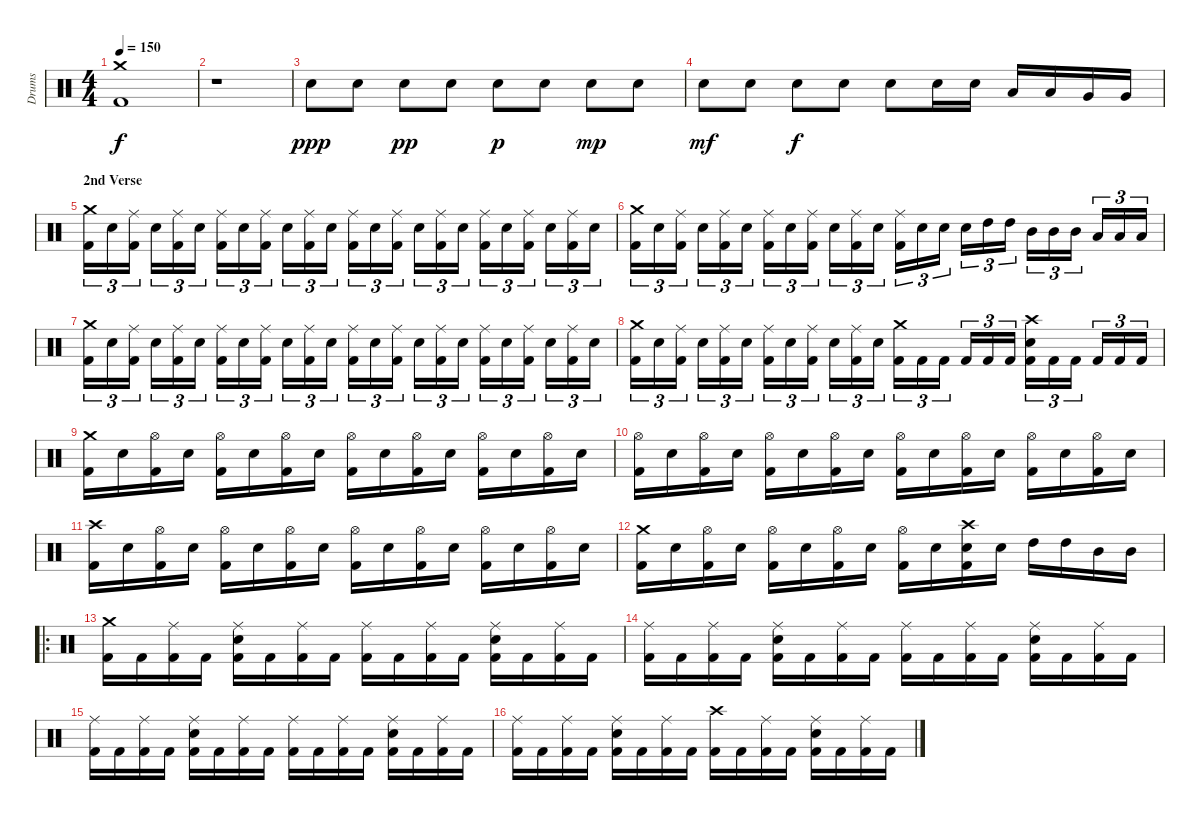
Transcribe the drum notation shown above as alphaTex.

\track ("Drums" "Drums") {instrument percussion}
\staff {score}
\articulation defaults
\ts (4 4)
\tempo 150
\clef neutral
\ks c
("Kick (hit) 2" "Crash medium (hit)").1{dy f} |
r.1 |
"Electric Snare (hit)".8{dy ppp} "Electric Snare (hit)".8 "Electric Snare (hit)".8{dy pp} "Electric Snare (hit)".8 "Electric Snare (hit)".8{dy p} "Electric Snare (hit)".8 "Electric Snare (hit)".8{dy mp} "Electric Snare (hit)".8 |
"Electric Snare (hit)".8{dy mf} "Electric Snare (hit)".8 "Electric Snare (hit)".8{dy f} "Electric Snare (hit)".8 "Electric Snare (hit)".8 "Electric Snare (hit)".16 "Electric Snare (hit)".16 "Low Tom (hit)".16 "Low Tom (hit)".16 "Very Low Tom (hit)".16 "Very Low Tom (hit)".16 |
\section ("" "2nd Verse")
("Kick (hit) 2" "Crash medium (hit)").16{tu (3 2)} "Electric Snare (hit)".16{tu (3 2)} ("Kick (hit) 2" "Ride (middle)").16{tu (3 2)} "Electric Snare (hit)".16{tu (3 2)} ("Kick (hit) 2" "Ride (middle)").16{tu (3 2)} "Electric Snare (hit)".16{tu (3 2)} ("Kick (hit) 2" "Ride (middle)").16{tu (3 2)} "Electric Snare (hit)".16{tu (3 2)} ("Kick (hit) 2" "Ride (middle)").16{tu (3 2)} "Electric Snare (hit)".16{tu (3 2)} ("Kick (hit) 2" "Ride (middle)").16{tu (3 2)} "Electric Snare (hit)".16{tu (3 2)} ("Kick (hit) 2" "Ride (middle)").16{tu (3 2)} "Electric Snare (hit)".16{tu (3 2)} ("Kick (hit) 2" "Ride (middle)").16{tu (3 2)} "Electric Snare (hit)".16{tu (3 2)} ("Kick (hit) 2" "Ride (middle)").16{tu (3 2)} "Electric Snare (hit)".16{tu (3 2)} ("Kick (hit) 2" "Ride (middle)").16{tu (3 2)} "Electric Snare (hit)".16{tu (3 2)} ("Kick (hit) 2" "Ride (middle)").16{tu (3 2)} "Electric Snare (hit)".16{tu (3 2)} ("Kick (hit) 2" "Ride (middle)").16{tu (3 2)} "Electric Snare (hit)".16{tu (3 2)} |
("Kick (hit) 2" "Crash medium (hit)").16{tu (3 2)} "Electric Snare (hit)".16{tu (3 2)} ("Kick (hit) 2" "Ride (middle)").16{tu (3 2)} "Electric Snare (hit)".16{tu (3 2)} ("Kick (hit) 2" "Ride (middle)").16{tu (3 2)} "Electric Snare (hit)".16{tu (3 2)} ("Kick (hit) 2" "Ride (middle)").16{tu (3 2)} "Electric Snare (hit)".16{tu (3 2)} ("Kick (hit) 2" "Ride (middle)").16{tu (3 2)} "Electric Snare (hit)".16{tu (3 2)} ("Kick (hit) 2" "Ride (middle)").16{tu (3 2)} "Electric Snare (hit)".16{tu (3 2)} ("Kick (hit) 2" "Ride (middle)").16{tu (3 2)} "Electric Snare (hit)".16{tu (3 2)} "Electric Snare (hit)".16{tu (3 2)} "Electric Snare (hit)".16{tu (3 2)} "High Tom (hit)".16{tu (3 2)} "High Tom (hit)".16{tu (3 2)} "Mid Tom (hit)".16{tu (3 2)} "Mid Tom (hit)".16{tu (3 2)} "Mid Tom (hit)".16{tu (3 2)} "Low Tom (hit)".16{tu (3 2)} "Low Tom (hit)".16{tu (3 2)} "Low Tom (hit)".16{tu (3 2)} |
("Kick (hit) 2" "Crash medium (hit)").16{tu (3 2)} "Electric Snare (hit)".16{tu (3 2)} ("Kick (hit) 2" "Ride (middle)").16{tu (3 2)} "Electric Snare (hit)".16{tu (3 2)} ("Kick (hit) 2" "Ride (middle)").16{tu (3 2)} "Electric Snare (hit)".16{tu (3 2)} ("Kick (hit) 2" "Ride (middle)").16{tu (3 2)} "Electric Snare (hit)".16{tu (3 2)} ("Kick (hit) 2" "Ride (middle)").16{tu (3 2)} "Electric Snare (hit)".16{tu (3 2)} ("Kick (hit) 2" "Ride (middle)").16{tu (3 2)} "Electric Snare (hit)".16{tu (3 2)} ("Kick (hit) 2" "Ride (middle)").16{tu (3 2)} "Electric Snare (hit)".16{tu (3 2)} ("Kick (hit) 2" "Ride (middle)").16{tu (3 2)} "Electric Snare (hit)".16{tu (3 2)} ("Kick (hit) 2" "Ride (middle)").16{tu (3 2)} "Electric Snare (hit)".16{tu (3 2)} ("Kick (hit) 2" "Ride (middle)").16{tu (3 2)} "Electric Snare (hit)".16{tu (3 2)} ("Kick (hit) 2" "Ride (middle)").16{tu (3 2)} "Electric Snare (hit)".16{tu (3 2)} ("Kick (hit) 2" "Ride (middle)").16{tu (3 2)} "Electric Snare (hit)".16{tu (3 2)} |
("Kick (hit) 2" "Crash medium (hit)").16{tu (3 2)} "Electric Snare (hit)".16{tu (3 2)} ("Kick (hit) 2" "Ride (middle)").16{tu (3 2)} "Electric Snare (hit)".16{tu (3 2)} ("Kick (hit) 2" "Ride (middle)").16{tu (3 2)} "Electric Snare (hit)".16{tu (3 2)} ("Kick (hit) 2" "Ride (middle)").16{tu (3 2)} "Electric Snare (hit)".16{tu (3 2)} ("Kick (hit) 2" "Ride (middle)").16{tu (3 2)} "Electric Snare (hit)".16{tu (3 2)} ("Kick (hit) 2" "Ride (middle)").16{tu (3 2)} "Electric Snare (hit)".16{tu (3 2)} ("Kick (hit) 2" "Crash medium (hit)").16{tu (3 2)} "Kick (hit) 2".16{tu (3 2)} "Kick (hit) 2".16{tu (3 2)} "Kick (hit) 2".16{tu (3 2)} "Kick (hit) 2".16{tu (3 2)} "Kick (hit) 2".16{tu (3 2)} ("Kick (hit) 2" "Electric Snare (hit)" "Crash high (hit)").16{tu (3 2)} "Kick (hit) 2".16{tu (3 2)} "Kick (hit) 2".16{tu (3 2)} "Kick (hit) 2".16{tu (3 2)} "Kick (hit) 2".16{tu (3 2)} "Kick (hit) 2".16{tu (3 2)} |
("Kick (hit) 2" "Crash medium (hit)").16 "Electric Snare (hit)".16 ("Kick (hit) 2" "Hi-Hat (open)").16 "Electric Snare (hit)".16 ("Kick (hit) 2" "Hi-Hat (open)").16 "Electric Snare (hit)".16 ("Kick (hit) 2" "Hi-Hat (open)").16 "Electric Snare (hit)".16 ("Kick (hit) 2" "Hi-Hat (open)").16 "Electric Snare (hit)".16 ("Kick (hit) 2" "Hi-Hat (open)").16 "Electric Snare (hit)".16 ("Kick (hit) 2" "Hi-Hat (open)").16 "Electric Snare (hit)".16 ("Kick (hit) 2" "Hi-Hat (open)").16 "Electric Snare (hit)".16 |
("Kick (hit) 2" "Hi-Hat (open)").16 "Electric Snare (hit)".16 ("Kick (hit) 2" "Hi-Hat (open)").16 "Electric Snare (hit)".16 ("Kick (hit) 2" "Hi-Hat (open)").16 "Electric Snare (hit)".16 ("Kick (hit) 2" "Hi-Hat (open)").16 "Electric Snare (hit)".16 ("Kick (hit) 2" "Hi-Hat (open)").16 "Electric Snare (hit)".16 ("Kick (hit) 2" "Hi-Hat (open)").16 "Electric Snare (hit)".16 ("Kick (hit) 2" "Hi-Hat (open)").16 "Electric Snare (hit)".16 ("Kick (hit) 2" "Hi-Hat (open)").16 "Electric Snare (hit)".16 |
("Kick (hit) 2" "Crash high (hit)").16 "Electric Snare (hit)".16 ("Kick (hit) 2" "Hi-Hat (open)").16 "Electric Snare (hit)".16 ("Kick (hit) 2" "Hi-Hat (open)").16 "Electric Snare (hit)".16 ("Kick (hit) 2" "Hi-Hat (open)").16 "Electric Snare (hit)".16 ("Kick (hit) 2" "Hi-Hat (open)").16 "Electric Snare (hit)".16 ("Kick (hit) 2" "Hi-Hat (open)").16 "Electric Snare (hit)".16 ("Kick (hit) 2" "Hi-Hat (open)").16 "Electric Snare (hit)".16 ("Kick (hit) 2" "Hi-Hat (open)").16 "Electric Snare (hit)".16 |
("Kick (hit) 2" "Crash medium (hit)").16 "Electric Snare (hit)".16 ("Kick (hit) 2" "Hi-Hat (open)").16 "Electric Snare (hit)".16 ("Kick (hit) 2" "Hi-Hat (open)").16 "Electric Snare (hit)".16 ("Kick (hit) 2" "Hi-Hat (open)").16 "Electric Snare (hit)".16 ("Kick (hit) 2" "Hi-Hat (open)").16 "Electric Snare (hit)".16 ("Kick (hit) 2" "Electric Snare (hit)" "Crash high (hit)").16 "Electric Snare (hit)".16 "High Tom (hit)".16 "High Tom (hit)".16 "Mid Tom (hit)".16 "Mid Tom (hit)".16 |
\ro
("Kick (hit) 2" "Crash medium (hit)").16 "Kick (hit) 2".16 ("Kick (hit) 2" "Ride (middle)").16 "Kick (hit) 2".16 ("Kick (hit) 2" "Electric Snare (hit)" "Ride (middle)").16 "Kick (hit) 2".16 ("Kick (hit) 2" "Ride (middle)").16 "Kick (hit) 2".16 ("Kick (hit) 2" "Ride (middle)").16 "Kick (hit) 2".16 ("Kick (hit) 2" "Ride (middle)").16 "Kick (hit) 2".16 ("Kick (hit) 2" "Electric Snare (hit)" "Ride (middle)").16 "Kick (hit) 2".16 ("Kick (hit) 2" "Ride (middle)").16 "Kick (hit) 2".16 |
("Kick (hit) 2" "Ride (middle)").16 "Kick (hit) 2".16 ("Kick (hit) 2" "Ride (middle)").16 "Kick (hit) 2".16 ("Kick (hit) 2" "Electric Snare (hit)" "Ride (middle)").16 "Kick (hit) 2".16 ("Kick (hit) 2" "Ride (middle)").16 "Kick (hit) 2".16 ("Kick (hit) 2" "Ride (middle)").16 "Kick (hit) 2".16 ("Kick (hit) 2" "Ride (middle)").16 "Kick (hit) 2".16 ("Kick (hit) 2" "Electric Snare (hit)" "Ride (middle)").16 "Kick (hit) 2".16 ("Kick (hit) 2" "Ride (middle)").16 "Kick (hit) 2".16 |
("Kick (hit) 2" "Ride (middle)").16 "Kick (hit) 2".16 ("Kick (hit) 2" "Ride (middle)").16 "Kick (hit) 2".16 ("Kick (hit) 2" "Electric Snare (hit)" "Ride (middle)").16 "Kick (hit) 2".16 ("Kick (hit) 2" "Ride (middle)").16 "Kick (hit) 2".16 ("Kick (hit) 2" "Ride (middle)").16 "Kick (hit) 2".16 ("Kick (hit) 2" "Ride (middle)").16 "Kick (hit) 2".16 ("Kick (hit) 2" "Electric Snare (hit)" "Ride (middle)").16 "Kick (hit) 2".16 ("Kick (hit) 2" "Ride (middle)").16 "Kick (hit) 2".16 |
("Kick (hit) 2" "Ride (middle)").16 "Kick (hit) 2".16 ("Kick (hit) 2" "Ride (middle)").16 "Kick (hit) 2".16 ("Kick (hit) 2" "Electric Snare (hit)" "Ride (middle)").16 "Kick (hit) 2".16 ("Kick (hit) 2" "Ride (middle)").16 "Kick (hit) 2".16 ("Kick (hit) 2" "Crash high (hit)").16 "Kick (hit) 2".16 ("Kick (hit) 2" "Ride (middle)").16 "Kick (hit) 2".16 ("Kick (hit) 2" "Electric Snare (hit)" "Ride (middle)").16 "Kick (hit) 2".16 ("Kick (hit) 2" "Ride (middle)").16 "Kick (hit) 2".16
